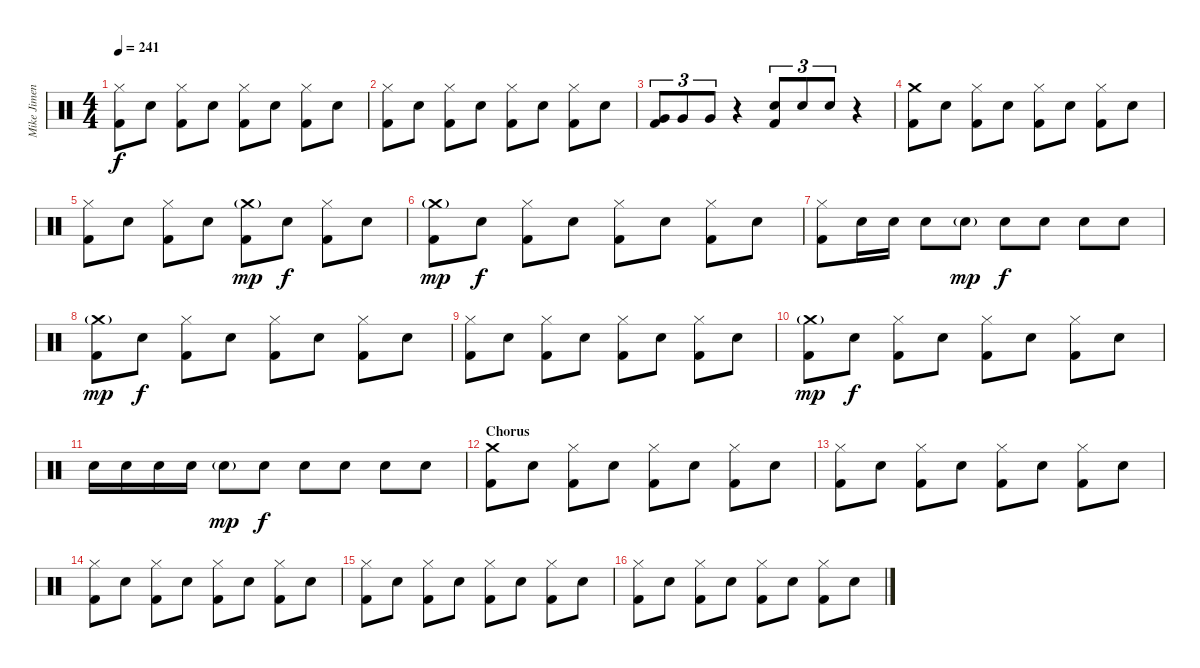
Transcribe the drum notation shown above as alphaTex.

\track ("Mike Jimenez" "Mike Jimen") {instrument percussion}
\staff {score}
\articulation defaults
\ts (4 4)
\tempo 241
\clef neutral
\ks c
("Hi-Hat (closed)" "Kick (hit) 2").8{dy f} "Electric Snare (hit)".8 ("Hi-Hat (closed)" "Kick (hit) 2").8 "Electric Snare (hit)".8 ("Hi-Hat (closed)" "Kick (hit) 2").8 "Electric Snare (hit)".8 ("Hi-Hat (closed)" "Kick (hit) 2").8 "Electric Snare (hit)".8 |
("Hi-Hat (closed)" "Kick (hit) 2").8 "Electric Snare (hit)".8 ("Hi-Hat (closed)" "Kick (hit) 2").8 "Electric Snare (hit)".8 ("Hi-Hat (closed)" "Kick (hit) 2").8 "Electric Snare (hit)".8 ("Hi-Hat (closed)" "Kick (hit) 2").8 "Electric Snare (hit)".8 |
("Very Low Tom (hit)" "Kick (hit) 2").8{tu (3 2)} "Very Low Tom (hit)".8{tu (3 2)} "Very Low Tom (hit)".8{tu (3 2)} r.4 ("Electric Snare (hit)" "Kick (hit) 2").8{tu (3 2)} "Electric Snare (hit)".8{tu (3 2)} "Electric Snare (hit)".8{tu (3 2)} r.4 |
("Crash medium (hit)" "Kick (hit) 2").8 "Electric Snare (hit)".8 ("Hi-Hat (closed)" "Kick (hit) 2").8 "Electric Snare (hit)".8 ("Hi-Hat (closed)" "Kick (hit) 2").8 "Electric Snare (hit)".8 ("Hi-Hat (closed)" "Kick (hit) 2").8 "Electric Snare (hit)".8 |
("Hi-Hat (closed)" "Kick (hit) 2").8 "Electric Snare (hit)".8 ("Hi-Hat (closed)" "Kick (hit) 2").8 "Electric Snare (hit)".8 ("Crash medium (hit)"{g} "Kick (hit) 2").8{dy mp} "Electric Snare (hit)".8{dy f} ("Hi-Hat (closed)" "Kick (hit) 2").8 "Electric Snare (hit)".8 |
("Crash medium (hit)"{g} "Kick (hit) 2").8{dy mp} "Electric Snare (hit)".8{dy f} ("Hi-Hat (closed)" "Kick (hit) 2").8 "Electric Snare (hit)".8 ("Hi-Hat (closed)" "Kick (hit) 2").8 "Electric Snare (hit)".8 ("Hi-Hat (closed)" "Kick (hit) 2").8 "Electric Snare (hit)".8 |
("Hi-Hat (closed)" "Kick (hit) 2").8 "Electric Snare (hit)".16 "Electric Snare (hit)".16 "Electric Snare (hit)".8 "Electric Snare (hit)"{g}.8{dy mp} "Electric Snare (hit)".8{dy f} "Electric Snare (hit)".8 "Electric Snare (hit)".8 "Electric Snare (hit)".8 |
("Crash medium (hit)"{g} "Kick (hit) 2").8{dy mp} "Electric Snare (hit)".8{dy f} ("Hi-Hat (closed)" "Kick (hit) 2").8 "Electric Snare (hit)".8 ("Hi-Hat (closed)" "Kick (hit) 2").8 "Electric Snare (hit)".8 ("Hi-Hat (closed)" "Kick (hit) 2").8 "Electric Snare (hit)".8 |
("Hi-Hat (closed)" "Kick (hit) 2").8 "Electric Snare (hit)".8 ("Hi-Hat (closed)" "Kick (hit) 2").8 "Electric Snare (hit)".8 ("Hi-Hat (closed)" "Kick (hit) 2").8 "Electric Snare (hit)".8 ("Hi-Hat (closed)" "Kick (hit) 2").8 "Electric Snare (hit)".8 |
("Crash medium (hit)"{g} "Kick (hit) 2").8{dy mp} "Electric Snare (hit)".8{dy f} ("Hi-Hat (closed)" "Kick (hit) 2").8 "Electric Snare (hit)".8 ("Hi-Hat (closed)" "Kick (hit) 2").8 "Electric Snare (hit)".8 ("Hi-Hat (closed)" "Kick (hit) 2").8 "Electric Snare (hit)".8 |
"Electric Snare (hit)".16 "Electric Snare (hit)".16 "Electric Snare (hit)".16 "Electric Snare (hit)".16 "Electric Snare (hit)"{g}.8{dy mp} "Electric Snare (hit)".8{dy f} "Electric Snare (hit)".8 "Electric Snare (hit)".8 "Electric Snare (hit)".8 "Electric Snare (hit)".8 |
\section ("" "Chorus")
("Crash medium (hit)" "Kick (hit) 2").8 "Electric Snare (hit)".8 ("Hi-Hat (closed)" "Kick (hit) 2").8 "Electric Snare (hit)".8 ("Hi-Hat (closed)" "Kick (hit) 2").8 "Electric Snare (hit)".8 ("Hi-Hat (closed)" "Kick (hit) 2").8 "Electric Snare (hit)".8 |
("Hi-Hat (closed)" "Kick (hit) 2").8 "Electric Snare (hit)".8 ("Hi-Hat (closed)" "Kick (hit) 2").8 "Electric Snare (hit)".8 ("Hi-Hat (closed)" "Kick (hit) 2").8 "Electric Snare (hit)".8 ("Hi-Hat (closed)" "Kick (hit) 2").8 "Electric Snare (hit)".8 |
("Hi-Hat (closed)" "Kick (hit) 2").8 "Electric Snare (hit)".8 ("Hi-Hat (closed)" "Kick (hit) 2").8 "Electric Snare (hit)".8 ("Hi-Hat (closed)" "Kick (hit) 2").8 "Electric Snare (hit)".8 ("Hi-Hat (closed)" "Kick (hit) 2").8 "Electric Snare (hit)".8 |
("Hi-Hat (closed)" "Kick (hit) 2").8 "Electric Snare (hit)".8 ("Hi-Hat (closed)" "Kick (hit) 2").8 "Electric Snare (hit)".8 ("Hi-Hat (closed)" "Kick (hit) 2").8 "Electric Snare (hit)".8 ("Hi-Hat (closed)" "Kick (hit) 2").8 "Electric Snare (hit)".8 |
("Hi-Hat (closed)" "Kick (hit) 2").8 "Electric Snare (hit)".8 ("Hi-Hat (closed)" "Kick (hit) 2").8 "Electric Snare (hit)".8 ("Hi-Hat (closed)" "Kick (hit) 2").8 "Electric Snare (hit)".8 ("Hi-Hat (closed)" "Kick (hit) 2").8 "Electric Snare (hit)".8
